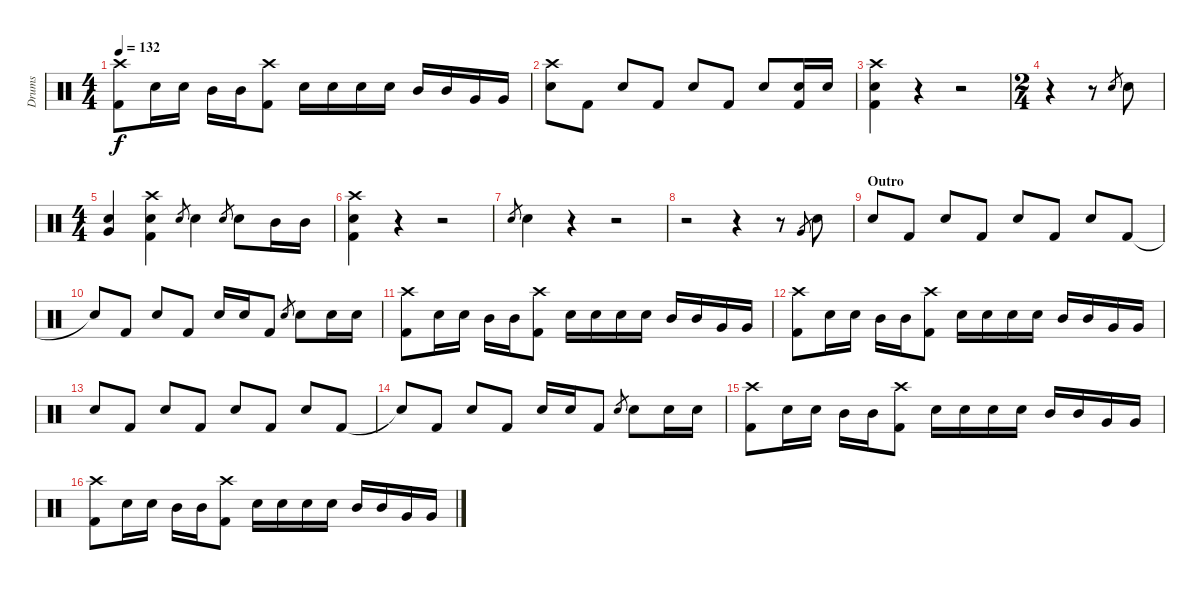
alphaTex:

\track ("Drums" "Drums") {instrument percussion}
\staff {score}
\articulation defaults
\ts (4 4)
\tempo 132
\clef neutral
\ks c
("Crash high (hit)" "Kick (hit) 2").8{dy f} "Electric Snare (hit)".16 "Electric Snare (hit)".16 "Mid Tom (hit)".16 "Mid Tom (hit)".16 ("Crash high (hit)" "Kick (hit) 2").8 "Electric Snare (hit)".16 "Electric Snare (hit)".16 "Electric Snare (hit)".16 "Electric Snare (hit)".16 "Mid Tom (hit)".16 "Mid Tom (hit)".16 "Very Low Tom (hit)".16 "Very Low Tom (hit)".16 |
("Crash high (hit)" "Electric Snare (hit)").8 "Kick (hit) 2".8 "Electric Snare (hit)".8 "Kick (hit) 2".8 "Electric Snare (hit)".8 "Kick (hit) 2".8 "Electric Snare (hit)".8 ("Electric Snare (hit)" "Kick (hit) 2").16 "Electric Snare (hit)".16 |
("Crash high (hit)" "Electric Snare (hit)" "Kick (hit) 2").4 r.4 r.2 |
\ts (2 4)
r.4 r.8 "Electric Snare (hit)".8{gr} "Electric Snare (hit)".8 |
\ts (4 4)
("Very Low Tom (hit)" "Electric Snare (hit)").4 ("Crash high (hit)" "Electric Snare (hit)" "Kick (hit) 2").4 "Electric Snare (hit)".8{gr} "Electric Snare (hit)".4 "Electric Snare (hit)".8{gr} "Electric Snare (hit)".8 "Mid Tom (hit)".16 "Mid Tom (hit)".16 |
("Crash high (hit)" "Electric Snare (hit)" "Kick (hit) 2").4 r.4 r.2 |
"Electric Snare (hit)".8{gr} "Electric Snare (hit)".4 r.4 r.2 |
r.2 r.4 r.8 "Very Low Tom (hit)".8{gr} "Electric Snare (hit)".8 |
\section ("" "Outro")
"Electric Snare (hit)".8 "Kick (hit) 2".8 "Electric Snare (hit)".8 "Kick (hit) 2".8 "Electric Snare (hit)".8 "Kick (hit) 2".8 "Electric Snare (hit)".8 "Kick (hit) 2".8 |
"Snare (hit)"{t}.8 "Kick (hit) 2".8 "Electric Snare (hit)".8 "Kick (hit) 2".8 "Electric Snare (hit)".16 "Electric Snare (hit)".16 "Kick (hit) 2".8 "Electric Snare (hit)".8{gr} "Electric Snare (hit)".8 "Electric Snare (hit)".16 "Electric Snare (hit)".16 |
("Crash high (hit)" "Kick (hit) 2").8 "Electric Snare (hit)".16 "Electric Snare (hit)".16 "Mid Tom (hit)".16 "Mid Tom (hit)".16 ("Crash high (hit)" "Kick (hit) 2").8 "Electric Snare (hit)".16 "Electric Snare (hit)".16 "Electric Snare (hit)".16 "Electric Snare (hit)".16 "Mid Tom (hit)".16 "Mid Tom (hit)".16 "Very Low Tom (hit)".16 "Very Low Tom (hit)".16 |
("Crash high (hit)" "Kick (hit) 2").8 "Electric Snare (hit)".16 "Electric Snare (hit)".16 "Mid Tom (hit)".16 "Mid Tom (hit)".16 ("Crash high (hit)" "Kick (hit) 2").8 "Electric Snare (hit)".16 "Electric Snare (hit)".16 "Electric Snare (hit)".16 "Electric Snare (hit)".16 "Mid Tom (hit)".16 "Mid Tom (hit)".16 "Very Low Tom (hit)".16 "Very Low Tom (hit)".16 |
"Electric Snare (hit)".8 "Kick (hit) 2".8 "Electric Snare (hit)".8 "Kick (hit) 2".8 "Electric Snare (hit)".8 "Kick (hit) 2".8 "Electric Snare (hit)".8 "Kick (hit) 2".8 |
"Snare (hit)"{t}.8 "Kick (hit) 2".8 "Electric Snare (hit)".8 "Kick (hit) 2".8 "Electric Snare (hit)".16 "Electric Snare (hit)".16 "Kick (hit) 2".8 "Electric Snare (hit)".8{gr} "Electric Snare (hit)".8 "Electric Snare (hit)".16 "Electric Snare (hit)".16 |
("Crash high (hit)" "Kick (hit) 2").8 "Electric Snare (hit)".16 "Electric Snare (hit)".16 "Mid Tom (hit)".16 "Mid Tom (hit)".16 ("Crash high (hit)" "Kick (hit) 2").8 "Electric Snare (hit)".16 "Electric Snare (hit)".16 "Electric Snare (hit)".16 "Electric Snare (hit)".16 "Mid Tom (hit)".16 "Mid Tom (hit)".16 "Very Low Tom (hit)".16 "Very Low Tom (hit)".16 |
("Crash high (hit)" "Kick (hit) 2").8 "Electric Snare (hit)".16 "Electric Snare (hit)".16 "Mid Tom (hit)".16 "Mid Tom (hit)".16 ("Crash high (hit)" "Kick (hit) 2").8 "Electric Snare (hit)".16 "Electric Snare (hit)".16 "Electric Snare (hit)".16 "Electric Snare (hit)".16 "Mid Tom (hit)".16 "Mid Tom (hit)".16 "Very Low Tom (hit)".16 "Very Low Tom (hit)".16
